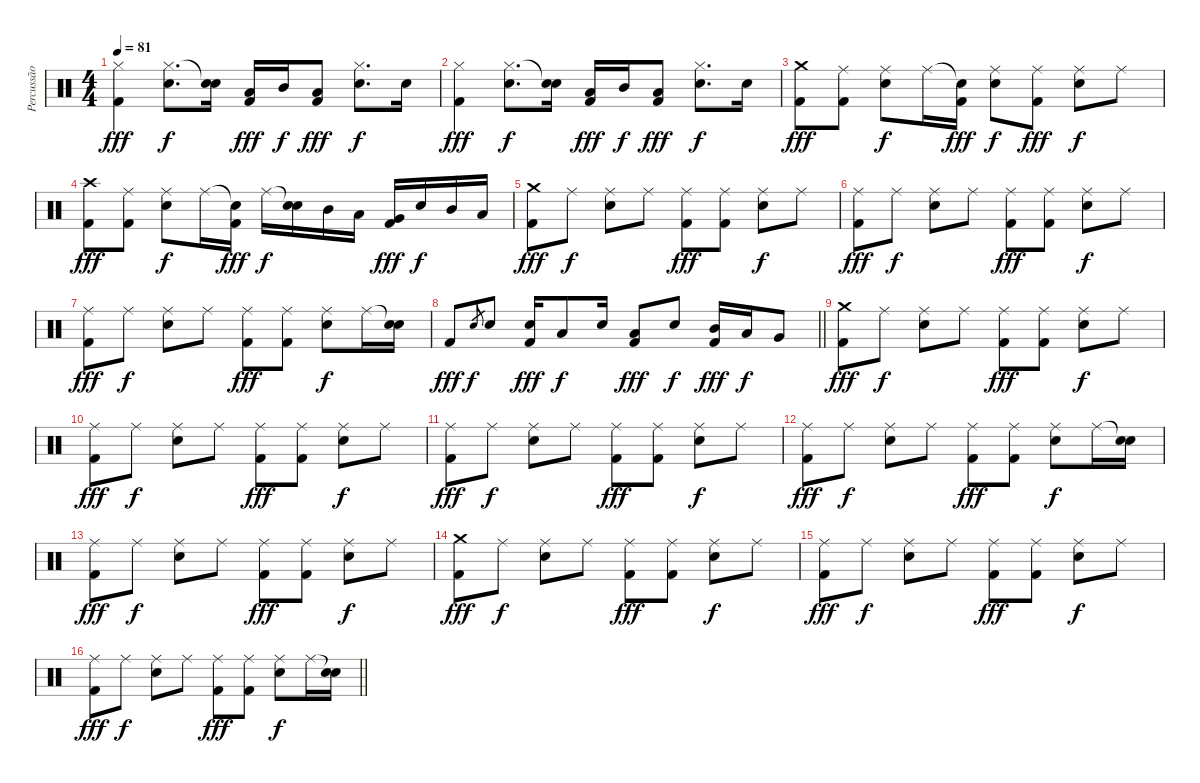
\track ("Percussão" "Percussão") {instrument percussion}
\staff {score}
\articulation defaults
\ts (4 4)
\tempo 81
\clef neutral
\ks c
("Hi-Hat (closed)" "Kick (hit) 2").4{dy fff} ("Hi-Hat (closed)" "Snare (hit) 2").8{d dy f} ("Snare (hit)"{t} "Snare (hit) 2").16 ("Low Tom (hit)" "Kick (hit) 2").16{dy fff} "Mid Tom (hit)".16{dy f} ("Low Tom (hit)" "Kick (hit) 2").8{dy fff} ("Hi-Hat (closed)" "Snare (hit) 2").8{d dy f} "Snare (hit) 2".16 |
("Hi-Hat (closed)" "Kick (hit) 2").4{dy fff} ("Hi-Hat (closed)" "Snare (hit) 2").8{d dy f} ("Snare (hit)"{t} "Snare (hit) 2").16 ("Low Tom (hit)" "Kick (hit) 2").16{dy fff} "Mid Tom (hit)".16{dy f} ("Low Tom (hit)" "Kick (hit) 2").8{dy fff} ("Hi-Hat (closed)" "Snare (hit) 2").8{d dy f} "Snare (hit) 2".16 |
("Crash medium (hit)" "Kick (hit) 2").8{dy fff} ("Ride (middle)" "Kick (hit) 2").8 ("Ride (middle)" "Snare (hit) 2").8{dy f} "Ride (middle)".16 ("Snare (hit)"{t} "Kick (hit) 2").16{dy fff} ("Ride (middle)" "Snare (hit) 2").8{dy f} ("Ride (middle)" "Kick (hit) 2").8{dy fff} ("Ride (middle)" "Snare (hit) 2").8{dy f} "Ride (middle)".8 |
("Crash high (hit)" "Kick (hit) 2").8{dy fff} ("Ride (middle)" "Kick (hit) 2").8 ("Ride (middle)" "Snare (hit) 2").8{dy f} "Ride (middle)".16 ("Snare (hit)"{t} "Kick (hit) 2").16{dy fff} "Ride (middle)".16{dy f} ("Snare (hit)"{t} "Snare (hit) 2").16 "Mid Tom (hit)".16 "Low Tom (hit)".16 ("Very Low Tom (hit)" "Kick (hit) 2").16{dy fff} "Snare (hit) 2".16{dy f} "Mid Tom (hit)".16 "Low Tom (hit)".16 |
("Crash medium (hit)" "Kick (hit) 2").8{dy fff} "Ride (middle)".8{dy f} ("Ride (middle)" "Snare (hit) 2").8 "Ride (middle)".8 ("Ride (middle)" "Kick (hit) 2").8{dy fff} ("Ride (middle)" "Kick (hit) 2").8 ("Ride (middle)" "Snare (hit) 2").8{dy f} "Ride (middle)".8 |
("Ride (middle)" "Kick (hit) 2").8{dy fff} "Ride (middle)".8{dy f} ("Ride (middle)" "Snare (hit) 2").8 "Ride (middle)".8 ("Ride (middle)" "Kick (hit) 2").8{dy fff} ("Ride (middle)" "Kick (hit) 2").8 ("Ride (middle)" "Snare (hit) 2").8{dy f} "Ride (middle)".8 |
("Ride (middle)" "Kick (hit) 2").8{dy fff} "Ride (middle)".8{dy f} ("Ride (middle)" "Snare (hit) 2").8 "Ride (middle)".8 ("Ride (middle)" "Kick (hit) 2").8{dy fff} ("Ride (middle)" "Kick (hit) 2").8 ("Ride (middle)" "Snare (hit) 2").8{dy f} "Ride (middle)".16 ("Snare (hit)"{t} "Snare (hit) 2").16 |
\barLineRight lightlight "Kick (hit) 2".8{dy fff} "Snare (hit) 2".8{gr dy f} "Snare (hit) 2".8
("Snare (hit) 2" "Kick (hit) 2").16{dy fff} "Low Tom (hit)".8{dy f} "Snare (hit) 2".16 ("Low Tom (hit)" "Kick (hit) 2").8{dy fff} "Snare (hit) 2".8{dy f} ("Mid Tom (hit)" "Kick (hit) 2").16{dy fff} "Low Tom (hit)".16{dy f} "Very Low Tom (hit)".8 |
("Crash medium (hit)" "Kick (hit) 2").8{dy fff} "Ride (middle)".8{dy f} ("Ride (middle)" "Snare (hit) 2").8 "Ride (middle)".8 ("Ride (middle)" "Kick (hit) 2").8{dy fff} ("Ride (middle)" "Kick (hit) 2").8 ("Ride (middle)" "Snare (hit) 2").8{dy f} "Ride (middle)".8 |
("Ride (middle)" "Kick (hit) 2").8{dy fff} "Ride (middle)".8{dy f} ("Ride (middle)" "Snare (hit) 2").8 "Ride (middle)".8 ("Ride (middle)" "Kick (hit) 2").8{dy fff} ("Ride (middle)" "Kick (hit) 2").8 ("Ride (middle)" "Snare (hit) 2").8{dy f} "Ride (middle)".8 |
("Ride (middle)" "Kick (hit) 2").8{dy fff} "Ride (middle)".8{dy f} ("Ride (middle)" "Snare (hit) 2").8 "Ride (middle)".8 ("Ride (middle)" "Kick (hit) 2").8{dy fff} ("Ride (middle)" "Kick (hit) 2").8 ("Ride (middle)" "Snare (hit) 2").8{dy f} "Ride (middle)".8 |
("Ride (middle)" "Kick (hit) 2").8{dy fff} "Ride (middle)".8{dy f} ("Ride (middle)" "Snare (hit) 2").8 "Ride (middle)".8 ("Ride (middle)" "Kick (hit) 2").8{dy fff} ("Ride (middle)" "Kick (hit) 2").8 ("Ride (middle)" "Snare (hit) 2").8{dy f} "Ride (middle)".16 ("Snare (hit)"{t} "Snare (hit) 2").16 |
("Ride (middle)" "Kick (hit) 2").8{dy fff} "Ride (middle)".8{dy f} ("Ride (middle)" "Snare (hit) 2").8 "Ride (middle)".8 ("Ride (middle)" "Kick (hit) 2").8{dy fff} ("Ride (middle)" "Kick (hit) 2").8 ("Ride (middle)" "Snare (hit) 2").8{dy f} "Ride (middle)".8 |
("Crash medium (hit)" "Kick (hit) 2").8{dy fff} "Ride (middle)".8{dy f} ("Ride (middle)" "Snare (hit) 2").8 "Ride (middle)".8 ("Ride (middle)" "Kick (hit) 2").8{dy fff} ("Ride (middle)" "Kick (hit) 2").8 ("Ride (middle)" "Snare (hit) 2").8{dy f} "Ride (middle)".8 |
("Ride (middle)" "Kick (hit) 2").8{dy fff} "Ride (middle)".8{dy f} ("Ride (middle)" "Snare (hit) 2").8 "Ride (middle)".8 ("Ride (middle)" "Kick (hit) 2").8{dy fff} ("Ride (middle)" "Kick (hit) 2").8 ("Ride (middle)" "Snare (hit) 2").8{dy f} "Ride (middle)".8 |
\barLineRight lightlight
("Ride (middle)" "Kick (hit) 2").8{dy fff} "Ride (middle)".8{dy f} ("Ride (middle)" "Snare (hit) 2").8 "Ride (middle)".8 ("Ride (middle)" "Kick (hit) 2").8{dy fff} ("Ride (middle)" "Kick (hit) 2").8 ("Ride (middle)" "Snare (hit) 2").8{dy f} "Ride (middle)".16 ("Snare (hit)"{t} "Snare (hit) 2").16
